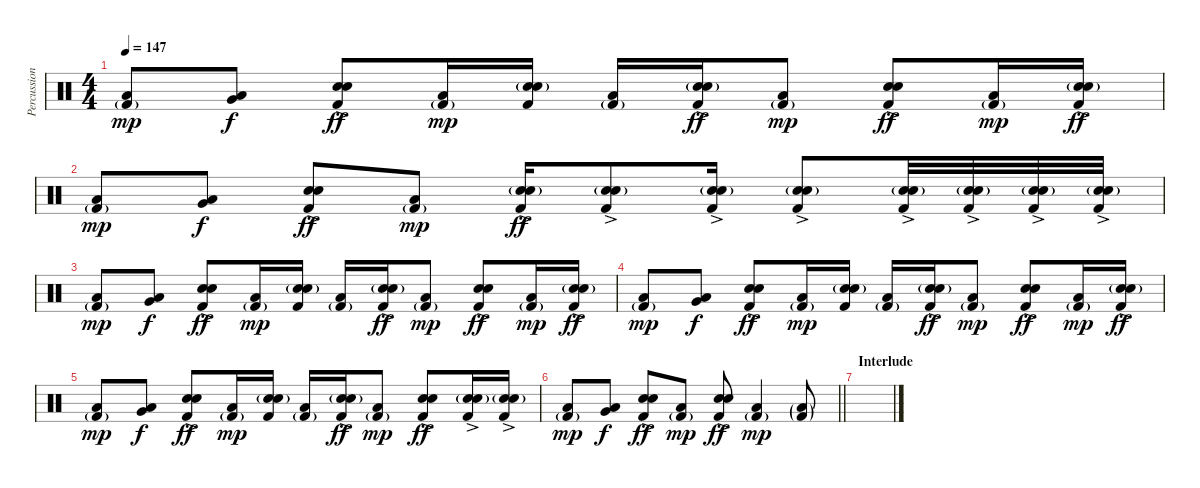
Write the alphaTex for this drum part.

\track ("Percussions" "Percussion") {instrument percussion}
\staff {score}
\articulation defaults
\ts (4 4)
\tempo 147
\clef neutral
\ks c
("Low Floor Tom (hit)" "Kick (hit) 2"{g}).8{dy mp} ("Very Low Tom (hit)" "Low Floor Tom (hit)").8{dy f} ("Electric Snare (hit)" "Snare (hit) 2" "Kick (hit) 2"{ac}).8{dy ff} ("Low Floor Tom (hit)" "Kick (hit) 2"{g}).16{dy mp} ("Electric Snare (hit)"{g} "Snare (hit) 2"{g} "Kick (hit) 2").16 ("Low Floor Tom (hit)" "Kick (hit) 2"{g}).16 ("Electric Snare (hit)"{g} "Snare (hit) 2" "Kick (hit) 2"{ac}).16{dy ff} ("Low Floor Tom (hit)" "Kick (hit) 2"{g}).8{dy mp} ("Electric Snare (hit)" "Snare (hit) 2" "Kick (hit) 2"{ac}).8{dy ff} ("Low Floor Tom (hit)" "Kick (hit) 2"{g}).16{dy mp} ("Electric Snare (hit)"{g} "Snare (hit) 2" "Kick (hit) 2"{ac}).16{dy ff} |
("Low Floor Tom (hit)" "Kick (hit) 2"{g}).8{dy mp} ("Very Low Tom (hit)" "Low Floor Tom (hit)").8{dy f} ("Electric Snare (hit)" "Snare (hit) 2" "Kick (hit) 2"{ac}).8{dy ff} ("Low Floor Tom (hit)" "Kick (hit) 2"{g}).8{dy mp} ("Electric Snare (hit)"{g} "Snare (hit) 2" "Kick (hit) 2"{ac}).16{dy ff} ("Electric Snare (hit)"{g} "Snare (hit) 2" "Kick (hit) 2"{ac}).8 ("Electric Snare (hit)"{g} "Snare (hit) 2" "Kick (hit) 2"{ac}).16 ("Electric Snare (hit)"{g} "Snare (hit) 2" "Kick (hit) 2"{ac}).8 ("Electric Snare (hit)"{g} "Snare (hit) 2" "Kick (hit) 2"{ac}).32 ("Electric Snare (hit)"{g} "Snare (hit) 2" "Kick (hit) 2"{ac}).32 ("Electric Snare (hit)"{g} "Snare (hit) 2" "Kick (hit) 2"{ac}).32 ("Electric Snare (hit)"{g} "Snare (hit) 2" "Kick (hit) 2"{ac}).32 |
("Low Floor Tom (hit)" "Kick (hit) 2"{g}).8{dy mp} ("Very Low Tom (hit)" "Low Floor Tom (hit)").8{dy f} ("Electric Snare (hit)" "Snare (hit) 2" "Kick (hit) 2"{ac}).8{dy ff} ("Low Floor Tom (hit)" "Kick (hit) 2"{g}).16{dy mp} ("Electric Snare (hit)"{g} "Snare (hit) 2"{g} "Kick (hit) 2").16 ("Low Floor Tom (hit)" "Kick (hit) 2"{g}).16 ("Electric Snare (hit)"{g} "Snare (hit) 2" "Kick (hit) 2"{ac}).16{dy ff} ("Low Floor Tom (hit)" "Kick (hit) 2"{g}).8{dy mp} ("Electric Snare (hit)" "Snare (hit) 2" "Kick (hit) 2"{ac}).8{dy ff} ("Low Floor Tom (hit)" "Kick (hit) 2"{g}).16{dy mp} ("Electric Snare (hit)"{g} "Snare (hit) 2" "Kick (hit) 2"{ac}).16{dy ff} |
("Low Floor Tom (hit)" "Kick (hit) 2"{g}).8{dy mp} ("Very Low Tom (hit)" "Low Floor Tom (hit)").8{dy f} ("Electric Snare (hit)" "Snare (hit) 2" "Kick (hit) 2"{ac}).8{dy ff} ("Low Floor Tom (hit)" "Kick (hit) 2"{g}).16{dy mp} ("Electric Snare (hit)"{g} "Snare (hit) 2"{g} "Kick (hit) 2").16 ("Low Floor Tom (hit)" "Kick (hit) 2"{g}).16 ("Electric Snare (hit)"{g} "Snare (hit) 2" "Kick (hit) 2"{ac}).16{dy ff} ("Low Floor Tom (hit)" "Kick (hit) 2"{g}).8{dy mp} ("Electric Snare (hit)" "Snare (hit) 2" "Kick (hit) 2"{ac}).8{dy ff} ("Low Floor Tom (hit)" "Kick (hit) 2"{g}).16{dy mp} ("Electric Snare (hit)"{g} "Snare (hit) 2" "Kick (hit) 2"{ac}).16{dy ff} |
("Low Floor Tom (hit)" "Kick (hit) 2"{g}).8{dy mp} ("Very Low Tom (hit)" "Low Floor Tom (hit)").8{dy f} ("Electric Snare (hit)" "Snare (hit) 2" "Kick (hit) 2"{ac}).8{dy ff} ("Low Floor Tom (hit)" "Kick (hit) 2"{g}).16{dy mp} ("Electric Snare (hit)"{g} "Snare (hit) 2"{g} "Kick (hit) 2").16 ("Low Floor Tom (hit)" "Kick (hit) 2"{g}).16 ("Electric Snare (hit)"{g} "Snare (hit) 2" "Kick (hit) 2"{ac}).16{dy ff} ("Low Floor Tom (hit)" "Kick (hit) 2"{g}).8{dy mp} ("Electric Snare (hit)" "Snare (hit) 2" "Kick (hit) 2"{ac}).8{dy ff} ("Electric Snare (hit)"{g} "Snare (hit) 2" "Kick (hit) 2"{ac}).16 ("Electric Snare (hit)"{g} "Snare (hit) 2" "Kick (hit) 2"{ac}).16 |
\barLineRight lightlight
("Low Floor Tom (hit)" "Kick (hit) 2"{g}).8{dy mp} ("Very Low Tom (hit)" "Low Floor Tom (hit)").8{dy f} ("Electric Snare (hit)" "Snare (hit) 2" "Kick (hit) 2"{ac}).8{dy ff} ("Low Floor Tom (hit)" "Kick (hit) 2"{g}).8{dy mp} ("Electric Snare (hit)" "Snare (hit) 2" "Kick (hit) 2"{ac}).8{dy ff} ("Low Floor Tom (hit)" "Kick (hit) 2"{g}).4{dy mp} ("Low Floor Tom (hit)"{g} "Kick (hit) 2"{g}).8 |
\section ("" "Interlude")
